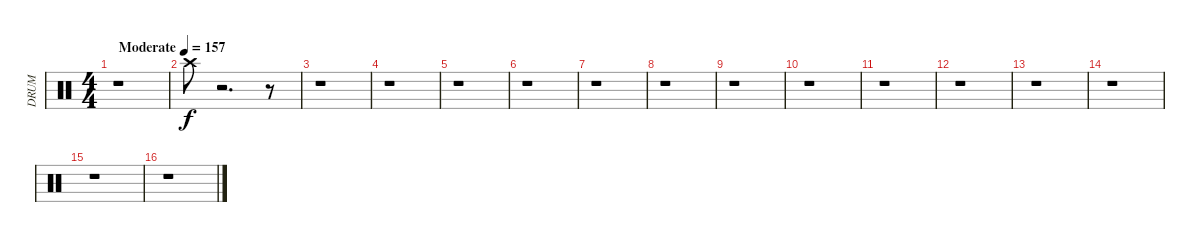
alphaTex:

\track ("DRUM" "DRUM") {instrument percussion}
\staff {score}
\articulation defaults
\ts (4 4)
\tempo (157 "Moderate")
\clef neutral
\ks c
r.1{dy f} |
"Crash high (hit)".8 r.2{d} r.8 |
r.1 |
r.1 |
r.1 |
r.1 |
r.1 |
r.1 |
r.1 |
r.1 |
r.1 |
r.1 |
r.1 |
r.1 |
r.1 |
r.1
